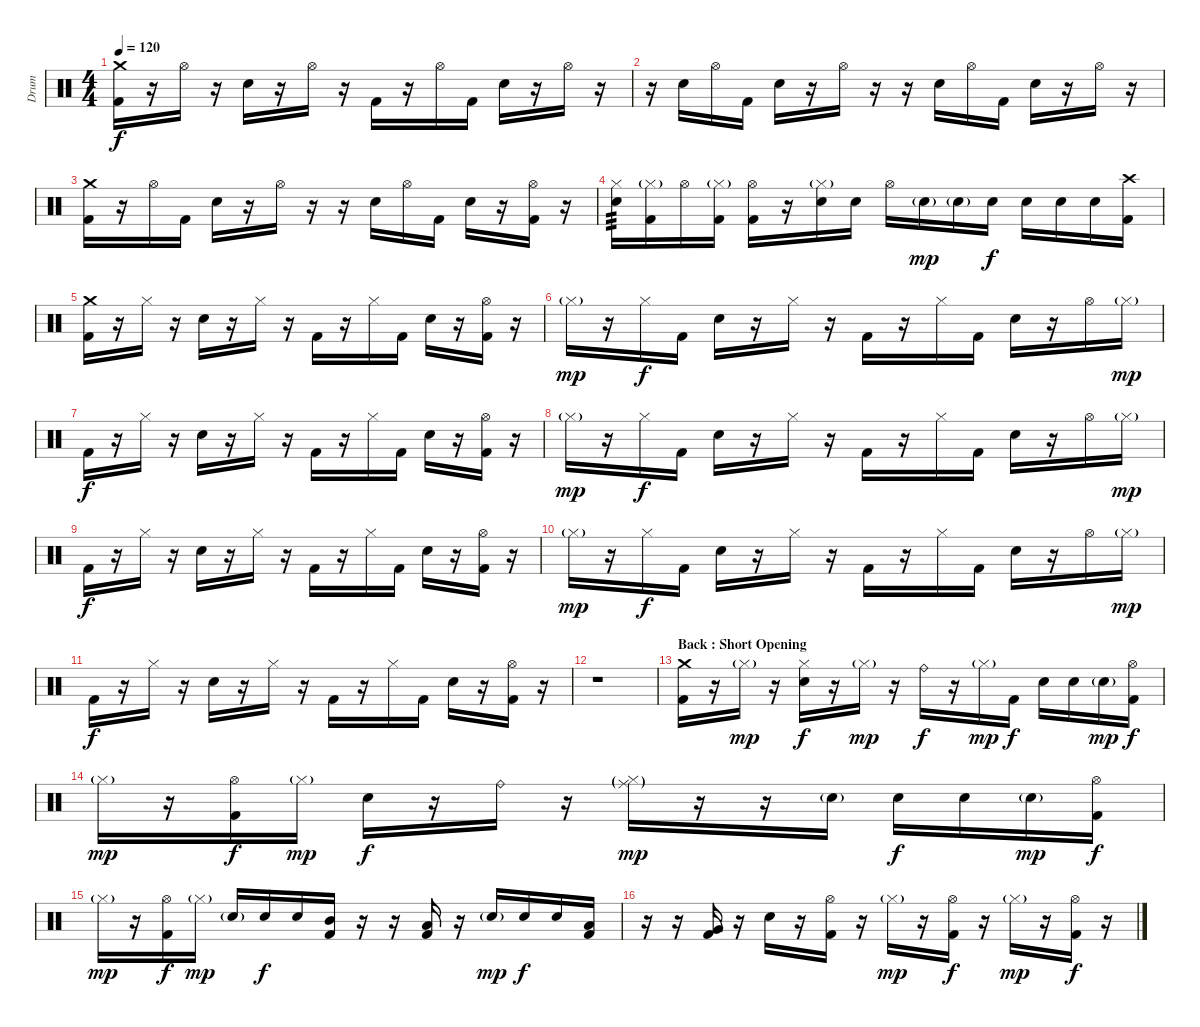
\track ("Drum" "Drum") {instrument percussion}
\staff {score}
\articulation defaults
\ts (4 4)
\tempo 120
\clef neutral
\ks c
("Crash medium (hit)" "Kick (hit) 2").16{dy f} r.16 "Hi-Hat (open)".16 r.16 "Snare (hit) 2".16 r.16 "Hi-Hat (open)".16 r.16 "Kick (hit) 2".16 r.16 "Hi-Hat (open)".16 "Kick (hit) 2".16 "Snare (hit) 2".16 r.16 "Hi-Hat (open)".16 r.16 |
r.16 "Snare (hit) 2".16 "Hi-Hat (open)".16 "Kick (hit) 2".16 "Snare (hit) 2".16 r.16 "Hi-Hat (open)".16 r.16 r.16 "Snare (hit) 2".16 "Hi-Hat (open)".16 "Kick (hit) 2".16 "Snare (hit) 2".16 r.16 "Hi-Hat (open)".16 r.16 |
("Crash medium (hit)" "Kick (hit) 2").16 r.16 "Hi-Hat (open)".16 "Kick (hit) 2".16 "Snare (hit) 2".16 r.16 "Hi-Hat (open)".16 r.16 r.16 "Snare (hit) 2".16 "Hi-Hat (open)".16 "Kick (hit) 2".16 "Snare (hit) 2".16 r.16 ("Hi-Hat (open)" "Kick (hit) 2").16 r.16 |
("Hi-Hat (closed)" "Snare (hit) 2").16{tp 3} ("Hi-Hat (closed)"{g} "Kick (hit) 2").16 "Hi-Hat (open)".16 ("Hi-Hat (closed)"{g} "Kick (hit) 2").16 ("Hi-Hat (open)" "Kick (hit) 2").16 r.16 ("Hi-Hat (closed)"{g} "Snare (hit) 2").16 "Snare (hit) 2".16 "Hi-Hat (open)".16 "Snare (hit) 2"{g}.16{dy mp} "Snare (hit) 2"{g}.16 "Snare (hit) 2".16{dy f} "Snare (hit) 2".16 "Snare (hit) 2".16 "Snare (hit) 2".16 ("Crash high (hit)" "Kick (hit) 2").16 |
("Crash medium (hit)" "Kick (hit) 2").16 r.16 "Hi-Hat (closed)".16 r.16 "Snare (hit) 2".16 r.16 "Hi-Hat (closed)".16 r.16 "Kick (hit) 2".16 r.16 "Hi-Hat (closed)".16 "Kick (hit) 2".16 "Snare (hit) 2".16 r.16 ("Hi-Hat (open)" "Kick (hit) 2").16 r.16 |
"Hi-Hat (closed)"{g}.16{dy mp} r.16 "Hi-Hat (closed)".16{dy f} "Kick (hit) 2".16 "Snare (hit) 2".16 r.16 "Hi-Hat (closed)".16 r.16 "Kick (hit) 2".16 r.16 "Hi-Hat (closed)".16 "Kick (hit) 2".16 "Snare (hit) 2".16 r.16 "Hi-Hat (open)".16 "Hi-Hat (closed)"{g}.16{dy mp} |
"Kick (hit) 2".16{dy f} r.16 "Hi-Hat (closed)".16 r.16 "Snare (hit) 2".16 r.16 "Hi-Hat (closed)".16 r.16 "Kick (hit) 2".16 r.16 "Hi-Hat (closed)".16 "Kick (hit) 2".16 "Snare (hit) 2".16 r.16 ("Hi-Hat (open)" "Kick (hit) 2").16 r.16 |
"Hi-Hat (closed)"{g}.16{dy mp} r.16 "Hi-Hat (closed)".16{dy f} "Kick (hit) 2".16 "Snare (hit) 2".16 r.16 "Hi-Hat (closed)".16 r.16 "Kick (hit) 2".16 r.16 "Hi-Hat (closed)".16 "Kick (hit) 2".16 "Snare (hit) 2".16 r.16 "Hi-Hat (open)".16 "Hi-Hat (closed)"{g}.16{dy mp} |
"Kick (hit) 2".16{dy f} r.16 "Hi-Hat (closed)".16 r.16 "Snare (hit) 2".16 r.16 "Hi-Hat (closed)".16 r.16 "Kick (hit) 2".16 r.16 "Hi-Hat (closed)".16 "Kick (hit) 2".16 "Snare (hit) 2".16 r.16 ("Hi-Hat (open)" "Kick (hit) 2").16 r.16 |
"Hi-Hat (closed)"{g}.16{dy mp} r.16 "Hi-Hat (closed)".16{dy f} "Kick (hit) 2".16 "Snare (hit) 2".16 r.16 "Hi-Hat (closed)".16 r.16 "Kick (hit) 2".16 r.16 "Hi-Hat (closed)".16 "Kick (hit) 2".16 "Snare (hit) 2".16 r.16 "Hi-Hat (open)".16 "Hi-Hat (closed)"{g}.16{dy mp} |
"Kick (hit) 2".16{dy f} r.16 "Hi-Hat (closed)".16 r.16 "Snare (hit) 2".16 r.16 "Hi-Hat (closed)".16 r.16 "Kick (hit) 2".16 r.16 "Hi-Hat (closed)".16 "Kick (hit) 2".16 "Snare (hit) 2".16 r.16 ("Hi-Hat (open)" "Kick (hit) 2").16 r.16 |
r.1 |
\section ("" "Back : Short Opening")
("Crash medium (hit)" "Kick (hit) 2").16 r.16 "Hi-Hat (closed)"{g}.16{dy mp} r.16 ("Hi-Hat (closed)" "Snare (hit) 2").16{dy f} r.16 "Hi-Hat (closed)"{g}.16{dy mp} r.16 "Ride (bell)".16{dy f} r.16 "Hi-Hat (closed)"{g}.16{dy mp} "Kick (hit) 2".16{dy f} "Snare (hit) 2".16 "Snare (hit) 2".16 "Snare (hit) 2"{g}.16{dy mp} ("Hi-Hat (open)" "Kick (hit) 2").16{dy f} |
"Hi-Hat (closed)"{g}.16{dy mp} r.16 ("Hi-Hat (open)" "Kick (hit) 2").16{dy f} "Hi-Hat (closed)"{g}.16{dy mp} "Snare (hit) 2".16{dy f} r.16 "Ride (bell)".16 r.16 ("Hi-Hat (closed)"{g} "Ride (middle)"{g}).16{dy mp} r.16 r.16 "Snare (hit) 2"{g}.16 "Snare (hit) 2".16{dy f} "Snare (hit) 2".16 "Snare (hit) 2"{g}.16{dy mp} ("Hi-Hat (open)" "Kick (hit) 2").16{dy f} |
"Hi-Hat (closed)"{g}.16{dy mp} r.16 ("Hi-Hat (open)" "Kick (hit) 2").16{dy f} "Hi-Hat (closed)"{g}.16{dy mp} "Snare (hit) 2"{g}.16 "Snare (hit) 2".16{dy f} "Snare (hit) 2".16 ("Mid Tom (hit)" "Kick (hit) 2").16 r.16 r.16 ("Low Tom (hit)" "Kick (hit) 2").16 r.16 "Snare (hit) 2"{g}.16{dy mp} "Snare (hit) 2".16{dy f} "Snare (hit) 2".16 ("Low Tom (hit)" "Kick (hit) 2").16 |
r.16 r.16 ("Very Low Tom (hit)" "Kick (hit) 2").16 r.16 "Snare (hit) 2".16 r.16 ("Hi-Hat (open)" "Kick (hit) 2").16 r.16 "Hi-Hat (closed)"{g}.16{dy mp} r.16 ("Hi-Hat (open)" "Kick (hit) 2").16{dy f} r.16 "Hi-Hat (closed)"{g}.16{dy mp} r.16 ("Hi-Hat (open)" "Kick (hit) 2").16{dy f} r.16
